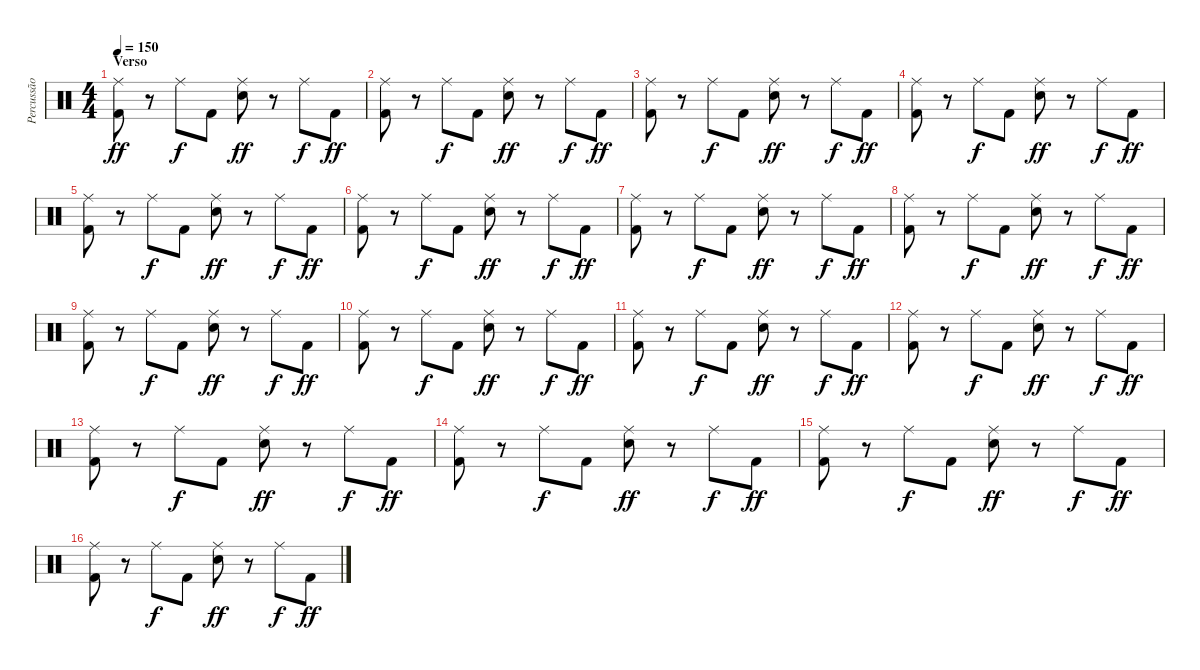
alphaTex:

\track ("Percussão" "Percussão") {instrument percussion}
\staff {score}
\articulation defaults
\ts (4 4)
\section ("" "Verso")
\tempo 150
\clef neutral
\ks c
("Kick (hit) 2" "Ride (middle)").8{dy ff} r.8 "Ride (middle)".8{dy f} "Kick (hit) 2".8 ("Electric Snare (hit)" "Ride (middle)").8{dy ff} r.8 "Ride (middle)".8{dy f} "Kick (hit) 2".8{dy ff} |
("Kick (hit) 2" "Ride (middle)").8 r.8 "Ride (middle)".8{dy f} "Kick (hit) 2".8 ("Electric Snare (hit)" "Ride (middle)").8{dy ff} r.8 "Ride (middle)".8{dy f} "Kick (hit) 2".8{dy ff} |
("Kick (hit) 2" "Ride (middle)").8 r.8 "Ride (middle)".8{dy f} "Kick (hit) 2".8 ("Electric Snare (hit)" "Ride (middle)").8{dy ff} r.8 "Ride (middle)".8{dy f} "Kick (hit) 2".8{dy ff} |
("Kick (hit) 2" "Ride (middle)").8 r.8 "Ride (middle)".8{dy f} "Kick (hit) 2".8 ("Electric Snare (hit)" "Ride (middle)").8{dy ff} r.8 "Ride (middle)".8{dy f} "Kick (hit) 2".8{dy ff} |
("Kick (hit) 2" "Ride (middle)").8 r.8 "Ride (middle)".8{dy f} "Kick (hit) 2".8 ("Electric Snare (hit)" "Ride (middle)").8{dy ff} r.8 "Ride (middle)".8{dy f} "Kick (hit) 2".8{dy ff} |
("Kick (hit) 2" "Ride (middle)").8 r.8 "Ride (middle)".8{dy f} "Kick (hit) 2".8 ("Electric Snare (hit)" "Ride (middle)").8{dy ff} r.8 "Ride (middle)".8{dy f} "Kick (hit) 2".8{dy ff} |
("Kick (hit) 2" "Ride (middle)").8 r.8 "Ride (middle)".8{dy f} "Kick (hit) 2".8 ("Electric Snare (hit)" "Ride (middle)").8{dy ff} r.8 "Ride (middle)".8{dy f} "Kick (hit) 2".8{dy ff} |
("Kick (hit) 2" "Ride (middle)").8 r.8 "Ride (middle)".8{dy f} "Kick (hit) 2".8 ("Electric Snare (hit)" "Ride (middle)").8{dy ff} r.8 "Ride (middle)".8{dy f} "Kick (hit) 2".8{dy ff} |
("Kick (hit) 2" "Ride (middle)").8 r.8 "Ride (middle)".8{dy f} "Kick (hit) 2".8 ("Electric Snare (hit)" "Ride (middle)").8{dy ff} r.8 "Ride (middle)".8{dy f} "Kick (hit) 2".8{dy ff} |
("Kick (hit) 2" "Ride (middle)").8 r.8 "Ride (middle)".8{dy f} "Kick (hit) 2".8 ("Electric Snare (hit)" "Ride (middle)").8{dy ff} r.8 "Ride (middle)".8{dy f} "Kick (hit) 2".8{dy ff} |
("Kick (hit) 2" "Ride (middle)").8 r.8 "Ride (middle)".8{dy f} "Kick (hit) 2".8 ("Electric Snare (hit)" "Ride (middle)").8{dy ff} r.8 "Ride (middle)".8{dy f} "Kick (hit) 2".8{dy ff} |
("Kick (hit) 2" "Ride (middle)").8 r.8 "Ride (middle)".8{dy f} "Kick (hit) 2".8 ("Electric Snare (hit)" "Ride (middle)").8{dy ff} r.8 "Ride (middle)".8{dy f} "Kick (hit) 2".8{dy ff} |
("Kick (hit) 2" "Ride (middle)").8 r.8 "Ride (middle)".8{dy f} "Kick (hit) 2".8 ("Electric Snare (hit)" "Ride (middle)").8{dy ff} r.8 "Ride (middle)".8{dy f} "Kick (hit) 2".8{dy ff} |
("Kick (hit) 2" "Ride (middle)").8 r.8 "Ride (middle)".8{dy f} "Kick (hit) 2".8 ("Electric Snare (hit)" "Ride (middle)").8{dy ff} r.8 "Ride (middle)".8{dy f} "Kick (hit) 2".8{dy ff} |
("Kick (hit) 2" "Ride (middle)").8 r.8 "Ride (middle)".8{dy f} "Kick (hit) 2".8 ("Electric Snare (hit)" "Ride (middle)").8{dy ff} r.8 "Ride (middle)".8{dy f} "Kick (hit) 2".8{dy ff} |
("Kick (hit) 2" "Ride (middle)").8 r.8 "Ride (middle)".8{dy f} "Kick (hit) 2".8 ("Electric Snare (hit)" "Ride (middle)").8{dy ff} r.8 "Ride (middle)".8{dy f} "Kick (hit) 2".8{dy ff}
